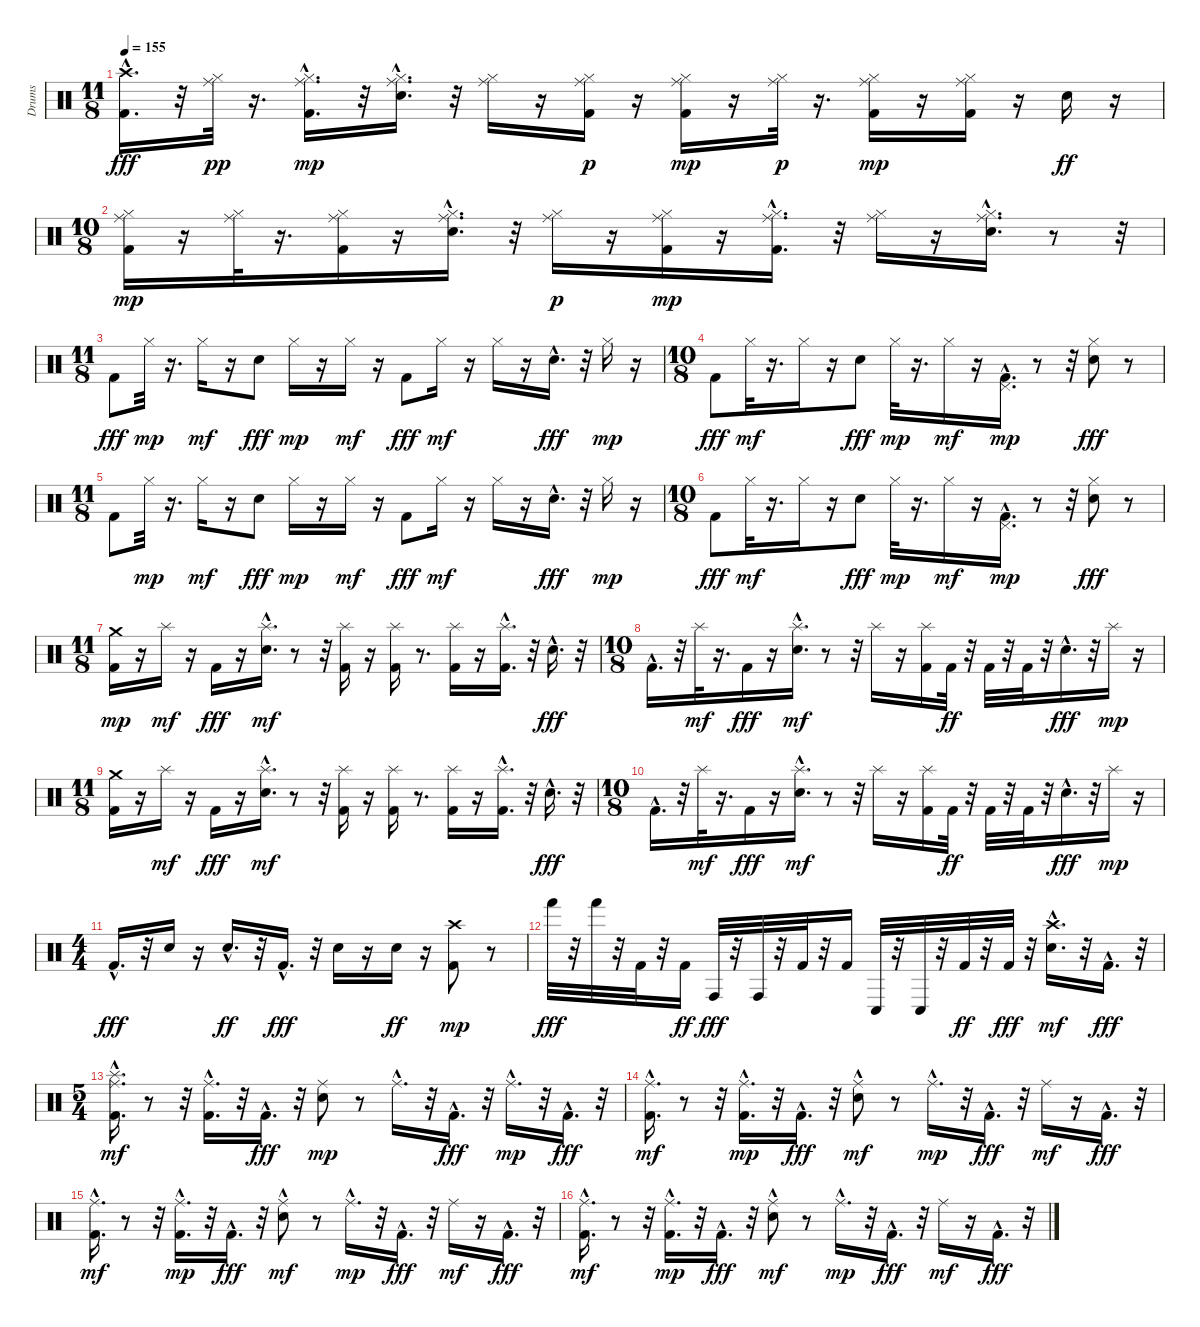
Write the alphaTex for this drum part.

\track ("Drums" "Drums") {instrument percussion}
\staff {score}
\articulation defaults
\ts (11 8)
\tempo 155
\clef neutral
\ks c
("Kick (hit) 2"{hac} "Crash high (hit)").16{d dy fff} r.32 ("Hi-Hat (closed)" "Ride (middle)").32{dy pp} r.16{d} ("Kick (hit) 2"{hac} "Hi-Hat (closed)" "Ride (middle)").16{d dy mp} r.32 ("Electric Snare (hit)"{hac} "Ride (middle)" "Hi-Hat (closed)").16{d} r.32 ("Hi-Hat (closed)" "Ride (middle)").16 r.16 ("Kick (hit) 2" "Hi-Hat (closed)" "Ride (middle)").16{dy p} r.16 ("Kick (hit) 2" "Hi-Hat (closed)" "Ride (middle)").16{dy mp} r.16 ("Hi-Hat (closed)" "Ride (middle)").32{dy p} r.16{d} ("Kick (hit) 2" "Hi-Hat (closed)" "Ride (middle)").16{dy mp} r.16 ("Kick (hit) 2" "Hi-Hat (closed)" "Ride (middle)").16 r.16 "Electric Snare (hit)".16{dy ff} r.16 |
\ts (10 8)
("Kick (hit) 2" "Hi-Hat (closed)" "Ride (middle)").16{dy mp} r.16 ("Ride (middle)" "Hi-Hat (closed)").32 r.16{d} ("Kick (hit) 2" "Hi-Hat (closed)" "Ride (middle)").16 r.16 ("Electric Snare (hit)"{hac} "Hi-Hat (closed)" "Ride (middle)").16{d} r.32 ("Hi-Hat (closed)" "Ride (middle)").16{dy p} r.16 ("Kick (hit) 2" "Hi-Hat (closed)" "Ride (middle)").16{dy mp} r.16 ("Kick (hit) 2"{hac} "Hi-Hat (closed)" "Ride (middle)").16{d} r.32 ("Hi-Hat (closed)" "Ride (middle)").16 r.16 ("Electric Snare (hit)"{hac} "Hi-Hat (closed)" "Ride (middle)").16{d} r.8 r.32 |
\ts (11 8)
"Kick (hit) 2".8{dy fff} "Hi-Hat (closed)".32{dy mp} r.16{d} "Hi-Hat (closed)".16{dy mf} r.16 "Electric Snare (hit)".8{dy fff} "Hi-Hat (closed)".16{dy mp} r.16 "Hi-Hat (closed)".16{dy mf} r.16 "Kick (hit) 2".8{dy fff} "Hi-Hat (closed)".16{dy mf} r.16 "Hi-Hat (closed)".16 r.16 "Electric Snare (hit)"{hac}.16{d dy fff} r.32 "Hi-Hat (closed)".16{dy mp} r.16 |
\ts (10 8)
"Kick (hit) 2".8{dy fff} "Hi-Hat (closed)".32{dy mf} r.16{d} "Hi-Hat (closed)".16 r.16 "Electric Snare (hit)".8{dy fff} "Hi-Hat (closed)".32{dy mp} r.16{d} "Hi-Hat (closed)".16{dy mf} r.16 ("Kick (hit) 2"{hac} "Pedal Hi-Hat (hit)").16{d dy mp} r.8 r.32 ("Electric Snare (hit)" "Hi-Hat (closed)").8{dy fff} r.8 |
\ts (11 8)
"Kick (hit) 2".8 "Hi-Hat (closed)".32{dy mp} r.16{d} "Hi-Hat (closed)".16{dy mf} r.16 "Electric Snare (hit)".8{dy fff} "Hi-Hat (closed)".16{dy mp} r.16 "Hi-Hat (closed)".16{dy mf} r.16 "Kick (hit) 2".8{dy fff} "Hi-Hat (closed)".16{dy mf} r.16 "Hi-Hat (closed)".16 r.16 "Electric Snare (hit)"{hac}.16{d dy fff} r.32 "Hi-Hat (closed)".16{dy mp} r.16 |
\ts (10 8)
"Kick (hit) 2".8{dy fff} "Hi-Hat (closed)".32{dy mf} r.16{d} "Hi-Hat (closed)".16 r.16 "Electric Snare (hit)".8{dy fff} "Hi-Hat (closed)".32{dy mp} r.16{d} "Hi-Hat (closed)".16{dy mf} r.16 ("Kick (hit) 2"{hac} "Pedal Hi-Hat (hit)").16{d dy mp} r.8 r.32 ("Electric Snare (hit)" "Hi-Hat (closed)").8{dy fff} r.8 |
\ts (11 8)
("Kick (hit) 2" "Crash medium (hit)").16{dy mp} r.16 "Splash (hit)".16{dy mf} r.16 "Kick (hit) 2".16{dy fff} r.16 ("Electric Snare (hit)"{hac} "Splash (hit)").16{d dy mf} r.8 r.32 ("Kick (hit) 2" "Splash (hit)").16 r.16 ("Kick (hit) 2" "Splash (hit)").16 r.8{d} ("Kick (hit) 2" "Splash (hit)").16 r.16 ("Kick (hit) 2"{hac} "Splash (hit)").16{d} r.32 "Electric Snare (hit)"{hac}.16{d dy fff} r.32 |
\ts (10 8)
"Kick (hit) 2"{hac}.16{d} r.32 "Splash (hit)".32{dy mf} r.16{d} "Kick (hit) 2".16{dy fff} r.16 ("Electric Snare (hit)"{hac} "Splash (hit)").16{d dy mf} r.8 r.32 "Splash (hit)".16 r.16 ("Kick (hit) 2" "Splash (hit)").16 "Kick (hit) 2".32{dy ff} r.32 "Kick (hit) 2".32 r.32 "Kick (hit) 2".32 r.32 "Electric Snare (hit)"{hac}.16{d dy fff} r.32 "Splash (hit)".16{dy mp} r.16 |
\ts (11 8)
("Kick (hit) 2" "Crash medium (hit)").16 r.16 "Splash (hit)".16{dy mf} r.16 "Kick (hit) 2".16{dy fff} r.16 ("Electric Snare (hit)"{hac} "Splash (hit)").16{d dy mf} r.8 r.32 ("Kick (hit) 2" "Splash (hit)").16 r.16 ("Kick (hit) 2" "Splash (hit)").16 r.8{d} ("Kick (hit) 2" "Splash (hit)").16 r.16 ("Kick (hit) 2"{hac} "Splash (hit)").16{d} r.32 "Electric Snare (hit)"{hac}.16{d dy fff} r.32 |
\ts (10 8)
"Kick (hit) 2"{hac}.16{d} r.32 "Splash (hit)".32{dy mf} r.16{d} "Kick (hit) 2".16{dy fff} r.16 ("Electric Snare (hit)"{hac} "Splash (hit)").16{d dy mf} r.8 r.32 "Splash (hit)".16 r.16 ("Kick (hit) 2" "Splash (hit)").16 "Kick (hit) 2".32{dy ff} r.32 "Kick (hit) 2".32 r.32 "Kick (hit) 2".32 r.32 "Electric Snare (hit)"{hac}.16{d dy fff} r.32 "Splash (hit)".16{dy mp} r.16 |
\ts (4 4)
"Kick (hit) 2"{hac}.16{d dy fff} r.32 "Electric Snare (hit)".16 r.16 "Electric Snare (hit)"{hac}.16{d dy ff} r.32 "Kick (hit) 2"{hac}.16{d dy fff} r.32 "Electric Snare (hit)".16 r.16 "Electric Snare (hit)".16{dy ff} r.16 ("Kick (hit) 2" "Crash high (hit)").8{dy mp} r.8 |
"Hand (hit)".32{dy fff volume 12} r.32 "Hand (hit)".32 r.32 "Kick (hit) 2".32 r.32 "Kick (hit) 2".16{dy ff} "Conga high (hit)".32{dy fff} r.32 "Conga high (hit)".32 r.32 "Kick (hit) 2".32 r.32 "Kick (hit) 2".16 "Conga low (hit)".32 r.32 "Conga low (hit)".32 r.32 "Kick (hit) 2".32{dy ff} r.32 "Kick (hit) 2".32{dy fff} r.32 ("Electric Snare (hit)"{hac} "Crash high (hit)").16{d dy mf volume 15} r.32 "Kick (hit) 2"{hac}.16{d dy fff} r.32 |
\ts (5 4)
("Kick (hit) 2"{hac} "Ride (middle)" "Splash (hit)").16{d dy mf} r.8 r.32 ("Kick (hit) 2" "Ride (middle)"{hac}).16{d} r.32 "Kick (hit) 2"{hac}.16{d dy fff} r.32 ("Electric Snare (hit)" "Ride (middle)").8{dy mp} r.8 "Ride (middle)"{hac}.16{d} r.32 "Kick (hit) 2"{hac}.16{d dy fff} r.32 "Ride (middle)"{hac}.16{d dy mp} r.32 "Kick (hit) 2"{hac}.16{d dy fff} r.32 |
("Kick (hit) 2"{hac} "Ride (middle)"{hac}).16{d dy mf} r.8 r.32 ("Kick (hit) 2" "Ride (middle)"{hac}).16{d dy mp} r.32 "Kick (hit) 2"{hac}.16{d dy fff} r.32 ("Electric Snare (hit)" "Ride (middle)"{hac}).8{dy mf} r.8 "Ride (middle)"{hac}.16{d dy mp} r.32 "Kick (hit) 2"{hac}.16{d dy fff} r.32 "Ride (middle)".16{dy mf} r.16 "Kick (hit) 2"{hac}.16{d dy fff} r.32 |
("Kick (hit) 2"{hac} "Ride (middle)"{hac}).16{d dy mf} r.8 r.32 ("Kick (hit) 2" "Ride (middle)"{hac}).16{d dy mp} r.32 "Kick (hit) 2"{hac}.16{d dy fff} r.32 ("Electric Snare (hit)" "Ride (middle)"{hac}).8{dy mf} r.8 "Ride (middle)"{hac}.16{d dy mp} r.32 "Kick (hit) 2"{hac}.16{d dy fff} r.32 "Ride (middle)".16{dy mf} r.16 "Kick (hit) 2"{hac}.16{d dy fff} r.32 |
("Kick (hit) 2"{hac} "Ride (middle)"{hac}).16{d dy mf} r.8 r.32 ("Kick (hit) 2" "Ride (middle)"{hac}).16{d dy mp} r.32 "Kick (hit) 2"{hac}.16{d dy fff} r.32 ("Electric Snare (hit)" "Ride (middle)"{hac}).8{dy mf} r.8 "Ride (middle)"{hac}.16{d dy mp} r.32 "Kick (hit) 2"{hac}.16{d dy fff} r.32 "Ride (middle)".16{dy mf} r.16 "Kick (hit) 2"{hac}.16{d dy fff} r.32
